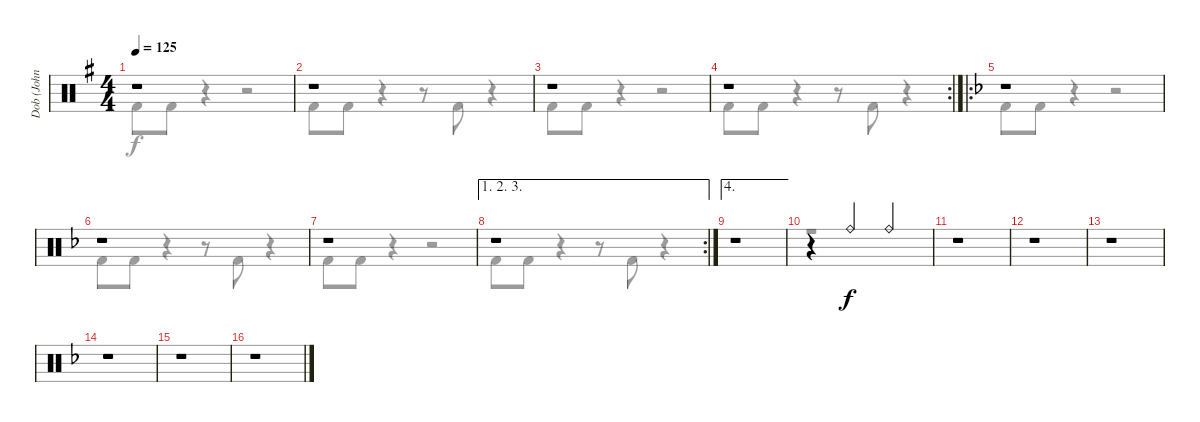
\track ("Dob (John Macaluso)" "Dob (John ") {instrument percussion}
\staff {score}
\articulation defaults
\voice
\ts (4 4)
\tempo 125
\clef neutral
\ks g
r.1{dy f} |
r.1 |
r.1 |
\rc 2
r.1 |
\ro
\ks f
r.1 |
r.1 |
r.1 |
\ae (1 2 3)
\rc 2
r.1 |
\ae 4
r.1 |
r.4 "Ride (bell)".4 "Ride (bell)".2 |
r.1 |
r.1 |
r.1 |
r.1 |
r.1 |
r.1
\voice
\clef neutral
\ottava regular
\simile none
\ks g "Kick (hit) 2".8{dy f} "Kick (hit) 2".8
r.4 r.2 |
"Kick (hit) 2".8 "Kick (hit) 2".8 r.4 r.8 "Kick (hit) 2".8 r.4 |
"Kick (hit) 2".8 "Kick (hit) 2".8 r.4 r.2 |
"Kick (hit) 2".8 "Kick (hit) 2".8 r.4 r.8 "Kick (hit) 2".8 r.4 |
\ks f "Kick (hit) 2".8 "Kick (hit) 2".8
r.4 r.2 |
"Kick (hit) 2".8 "Kick (hit) 2".8 r.4 r.8 "Kick (hit) 2".8 r.4 |
"Kick (hit) 2".8 "Kick (hit) 2".8 r.4 r.2 |
"Kick (hit) 2".8 "Kick (hit) 2".8 r.4 r.8 "Kick (hit) 2".8 r.4 |
r.1 |
r.1 |
r.1 |
r.1 |
r.1 |
r.1 |
r.1 |
r.1
